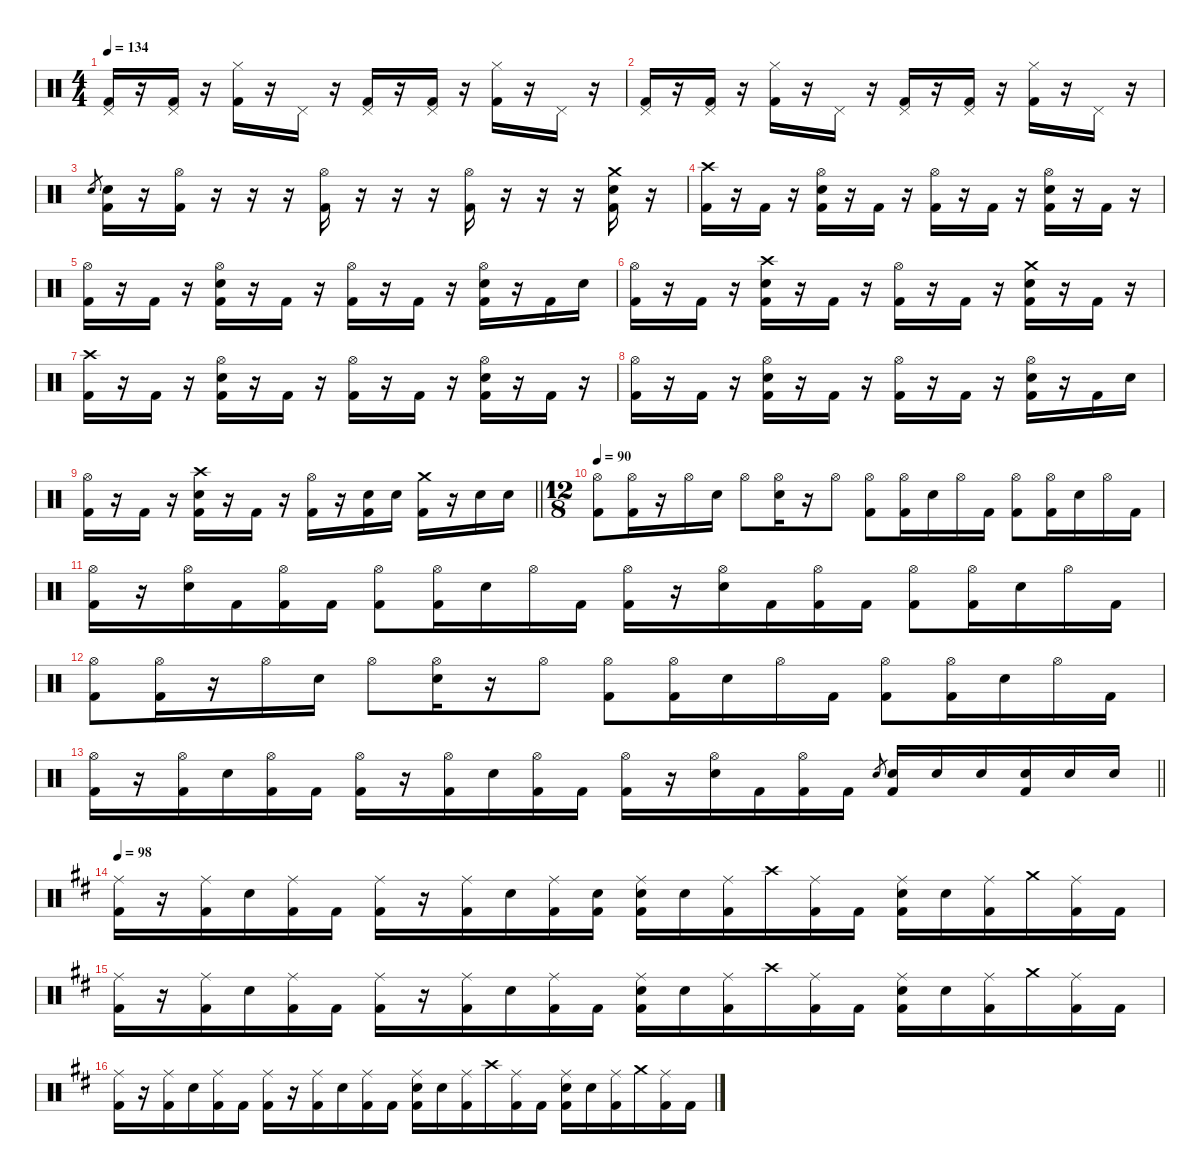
\defaultSystemsLayout 4
\hideDynamics
\bracketExtendMode nobrackets
\singleTrackTrackNamePolicy hidden
\multiTrackTrackNamePolicy hidden
\firstSystemTrackNameMode fullname
\otherSystemsTrackNameOrientation horizontal
\track ("DRUMS" "drm.") {instrument percussion}
\staff {score}
\articulation defaults
\ts (4 4)
\tempo 134
\clef neutral
\ks c
("Pedal Hi-Hat (hit)" "Kick (hit) 2").16{dy ff beam Up} r.16{beam Up} ("Pedal Hi-Hat (hit)" "Kick (hit) 2").16{dy mf beam Up} r.16{beam Up} ("Hi-Hat (closed)" "Kick (hit) 2").16{dy ff beam Down} r.16{beam Down} "Pedal Hi-Hat (hit)".16{dy mf beam Down} r.16{beam Down} ("Pedal Hi-Hat (hit)" "Kick (hit) 2").16{dy ff beam Up} r.16{beam Up} ("Pedal Hi-Hat (hit)" "Kick (hit) 2").16{dy mf beam Up} r.16{beam Up} ("Hi-Hat (closed)" "Kick (hit) 2").16{dy ff beam Down} r.16{beam Down} "Pedal Hi-Hat (hit)".16{dy mf beam Down} r.16{beam Down} |
("Pedal Hi-Hat (hit)" "Kick (hit) 2").16{dy ff beam Up} r.16{beam Up} ("Pedal Hi-Hat (hit)" "Kick (hit) 2").16{dy mf beam Up} r.16{beam Up} ("Hi-Hat (closed)" "Kick (hit) 2").16{dy ff beam Down} r.16{beam Down} "Pedal Hi-Hat (hit)".16{dy mf beam Down} r.16{beam Down} ("Pedal Hi-Hat (hit)" "Kick (hit) 2").16{dy ff beam Up} r.16{beam Up} ("Pedal Hi-Hat (hit)" "Kick (hit) 2").16{dy mf beam Up} r.16{beam Up} ("Hi-Hat (closed)" "Kick (hit) 2").16{dy ff beam Down} r.16{beam Down} "Pedal Hi-Hat (hit)".16{dy mf beam Down} r.16{beam Down} |
"Electric Snare (hit)".8{gr dy f beam Up} ("Snare (hit) 2" "Kick (hit) 2").16{dy ff beam Down} r.16{beam Down} ("Hi-Hat (open)" "Kick (hit) 2").16{dy mf beam Down} r.16{beam Down} r.16{beam Down} r.16{beam Down} ("Hi-Hat (open)" "Kick (hit) 2").16{beam Down} r.16{beam Down} r.16{beam Down} r.16{beam Down} ("Hi-Hat (open)" "Kick (hit) 2").16{beam Down} r.16{beam Down} r.16{beam Down} r.16{beam Down} ("Crash medium (hit)" "Snare (hit) 2" "Kick (hit) 2").16{dy f beam Down} r.16{beam Down} |
("Crash high (hit)" "Kick (hit) 2").16{dy ff beam Down} r.16{beam Down} "Kick (hit) 2".16{beam Down} r.16{beam Down} ("Hi-Hat (open)" "Snare (hit) 2" "Kick (hit) 2").16{dy mf beam Down} r.16{beam Down} "Kick (hit) 2".16{dy ff beam Down} r.16{beam Down} ("Hi-Hat (open)" "Kick (hit) 2").16{dy mf beam Down} r.16{beam Down} "Kick (hit) 2".16{dy ff beam Down} r.16{beam Down} ("Hi-Hat (open)" "Snare (hit) 2" "Kick (hit) 2").16{dy mf beam Down} r.16{beam Down} "Kick (hit) 2".16{dy ff beam Down} r.16{beam Down} |
("Hi-Hat (open)" "Kick (hit) 2").16{beam Down} r.16{beam Down} "Kick (hit) 2".16{beam Down} r.16{beam Down} ("Hi-Hat (open)" "Snare (hit) 2" "Kick (hit) 2").16{dy mf beam Down} r.16{beam Down} "Kick (hit) 2".16{dy ff beam Down} r.16{beam Down} ("Hi-Hat (open)" "Kick (hit) 2").16{dy mf beam Down} r.16{beam Down} "Kick (hit) 2".16{dy ff beam Down} r.16{beam Down} ("Hi-Hat (open)" "Snare (hit) 2" "Kick (hit) 2").16{dy mf beam Down} r.16{beam Down} "Kick (hit) 2".16{dy ff beam Down} "Snare (hit) 2".16{dy f beam Down} |
("Hi-Hat (open)" "Kick (hit) 2").16{dy ff beam Down} r.16{beam Down} "Kick (hit) 2".16{beam Down} r.16{beam Down} ("Crash high (hit)" "Snare (hit) 2" "Kick (hit) 2").16{dy mf beam Down} r.16{beam Down} "Kick (hit) 2".16{dy ff beam Down} r.16{beam Down} ("Hi-Hat (open)" "Kick (hit) 2").16{dy mf beam Down} r.16{beam Down} "Kick (hit) 2".16{dy ff beam Down} r.16{beam Down} ("Crash medium (hit)" "Snare (hit) 2" "Kick (hit) 2").16{dy mf beam Down} r.16{beam Down} "Kick (hit) 2".16{dy ff beam Down} r.16{beam Down} |
("Crash high (hit)" "Kick (hit) 2").16{beam Down} r.16{beam Down} "Kick (hit) 2".16{beam Down} r.16{beam Down} ("Hi-Hat (open)" "Snare (hit) 2" "Kick (hit) 2").16{dy mf beam Down} r.16{beam Down} "Kick (hit) 2".16{dy ff beam Down} r.16{beam Down} ("Hi-Hat (open)" "Kick (hit) 2").16{dy mf beam Down} r.16{beam Down} "Kick (hit) 2".16{dy ff beam Down} r.16{beam Down} ("Hi-Hat (open)" "Snare (hit) 2" "Kick (hit) 2").16{dy mf beam Down} r.16{beam Down} "Kick (hit) 2".16{dy ff beam Down} r.16{beam Down} |
("Hi-Hat (open)" "Kick (hit) 2").16{beam Down} r.16{beam Down} "Kick (hit) 2".16{beam Down} r.16{beam Down} ("Hi-Hat (open)" "Snare (hit) 2" "Kick (hit) 2").16{dy mf beam Down} r.16{beam Down} "Kick (hit) 2".16{dy ff beam Down} r.16{beam Down} ("Hi-Hat (open)" "Kick (hit) 2").16{dy mf beam Down} r.16{beam Down} "Kick (hit) 2".16{dy ff beam Down} r.16{beam Down} ("Hi-Hat (open)" "Snare (hit) 2" "Kick (hit) 2").16{dy mf beam Down} r.16{beam Down} "Kick (hit) 2".16{dy ff beam Down} "Snare (hit) 2".16{dy f beam Down} |
\barLineRight lightlight
("Hi-Hat (open)" "Kick (hit) 2").16{dy ff beam Down} r.16{beam Down} "Kick (hit) 2".16{beam Down} r.16{beam Down} ("Crash high (hit)" "Snare (hit) 2" "Kick (hit) 2").16{dy mf beam Down} r.16{beam Down} "Kick (hit) 2".16{dy ff beam Down} r.16{beam Down} ("Hi-Hat (open)" "Kick (hit) 2").16{dy mf beam Down} r.16{beam Down} ("Snare (hit) 2" "Kick (hit) 2").16{dy f beam Down} "Snare (hit) 2".16{beam Down} ("Crash medium (hit)" "Kick (hit) 2").16{dy mf beam Down} r.16{beam Down} "Snare (hit) 2".16{dy f beam Down} "Snare (hit) 2".16{beam Down} |
\ts (12 8)
\beaming (8 3 3 3 3)
\tempo 90
("Hi-Hat (open)" "Kick (hit) 2").8{dy mf beam Down} ("Hi-Hat (open)" "Kick (hit) 2").16{dy mp beam Down} r.16{beam Down} "Hi-Hat (open)".16{beam Down} "Snare (hit) 2".16{dy f beam Down} "Hi-Hat (open)".8{dy mp beam Down} ("Hi-Hat (open)" "Snare (hit) 2").16{beam Down} r.16{beam Down} "Hi-Hat (open)".8{beam Down} ("Hi-Hat (open)" "Kick (hit) 2").8{beam Down} ("Hi-Hat (open)" "Kick (hit) 2").16{beam Down} "Snare (hit) 2".16{dy f beam Down} "Hi-Hat (open)".16{dy mp beam Down} "Kick (hit) 2".16{dy f beam Down} ("Hi-Hat (open)" "Kick (hit) 2").8{dy mp beam Down} ("Hi-Hat (open)" "Kick (hit) 2").16{beam Down} "Snare (hit) 2".16{dy f beam Down} "Hi-Hat (open)".16{dy mp beam Down} "Kick (hit) 2".16{dy f beam Down} |
("Hi-Hat (open)" "Kick (hit) 2").16{dy mp beam Down} r.16{beam Down} ("Hi-Hat (open)" "Snare (hit) 2").16{beam Down} "Kick (hit) 2".16{dy f beam Down} ("Hi-Hat (open)" "Kick (hit) 2").16{dy mp beam Down} "Kick (hit) 2".16{dy f beam Down} ("Hi-Hat (open)" "Kick (hit) 2").8{dy mp beam Down} ("Hi-Hat (open)" "Kick (hit) 2").16{beam Down} "Snare (hit) 2".16{dy f beam Down} "Hi-Hat (open)".16{dy mp beam Down} "Kick (hit) 2".16{dy f beam Down} ("Hi-Hat (open)" "Kick (hit) 2").16{dy mp beam Down} r.16{beam Down} ("Hi-Hat (open)" "Snare (hit) 2").16{beam Down} "Kick (hit) 2".16{dy f beam Down} ("Hi-Hat (open)" "Kick (hit) 2").16{dy mp beam Down} "Kick (hit) 2".16{dy f beam Down} ("Hi-Hat (open)" "Kick (hit) 2").8{dy mp beam Down} ("Hi-Hat (open)" "Kick (hit) 2").16{beam Down} "Snare (hit) 2".16{dy f beam Down} "Hi-Hat (open)".16{dy mp beam Down} "Kick (hit) 2".16{dy f beam Down} |
("Hi-Hat (open)" "Kick (hit) 2").8{dy mp beam Down} ("Hi-Hat (open)" "Kick (hit) 2").16{beam Down} r.16{beam Down} "Hi-Hat (open)".16{beam Down} "Snare (hit) 2".16{dy f beam Down} "Hi-Hat (open)".8{dy mp beam Down} ("Hi-Hat (open)" "Snare (hit) 2").16{beam Down} r.16{beam Down} "Hi-Hat (open)".8{beam Down} ("Hi-Hat (open)" "Kick (hit) 2").8{beam Down} ("Hi-Hat (open)" "Kick (hit) 2").16{beam Down} "Snare (hit) 2".16{dy f beam Down} "Hi-Hat (open)".16{dy mp beam Down} "Kick (hit) 2".16{dy f beam Down} ("Hi-Hat (open)" "Kick (hit) 2").8{dy mp beam Down} ("Hi-Hat (open)" "Kick (hit) 2").16{beam Down} "Snare (hit) 2".16{dy f beam Down} "Hi-Hat (open)".16{dy mp beam Down} "Kick (hit) 2".16{dy f beam Down} |
\barLineRight lightlight
("Hi-Hat (open)" "Kick (hit) 2").16{dy mp beam Down} r.16{beam Down} ("Hi-Hat (open)" "Kick (hit) 2").16{beam Down} "Snare (hit) 2".16{dy f beam Down} ("Hi-Hat (open)" "Kick (hit) 2").16{dy mp beam Down} "Kick (hit) 2".16{dy f beam Down} ("Hi-Hat (open)" "Kick (hit) 2").16{dy mp beam Down} r.16{beam Down} ("Hi-Hat (open)" "Kick (hit) 2").16{beam Down} "Snare (hit) 2".16{dy f beam Down} ("Hi-Hat (open)" "Kick (hit) 2").16{dy mp beam Down} "Kick (hit) 2".16{dy f beam Down} ("Hi-Hat (open)" "Kick (hit) 2").16{dy mp beam Down} r.16{beam Down} ("Hi-Hat (open)" "Snare (hit) 2").16{beam Down} "Kick (hit) 2".16{dy f beam Down} ("Hi-Hat (open)" "Kick (hit) 2").16{dy mp beam Down} "Kick (hit) 2".16{dy f beam Down} "Electric Snare (hit)".8{gr dy mf beam Up} ("Snare (hit) 2" "Kick (hit) 2").16{dy f beam Up} "Snare (hit) 2".16{beam Up} "Snare (hit) 2".16{beam Up} ("Snare (hit) 2" "Kick (hit) 2").16{beam Up} "Snare (hit) 2".16{beam Up} "Snare (hit) 2".16{beam Up} |
\tempo 98
\ks bminor
("Ride (middle)"{acc forcenatural} "Kick (hit) 2"{acc forcenatural}).16{dy mp beam Down} r.16{beam Down} ("Ride (middle)"{acc forcenatural} "Kick (hit) 2"{acc forcenatural}).16{dy f beam Down} "Snare (hit) 2"{acc forcenatural}.16{beam Down} ("Ride (middle)"{acc forcenatural} "Kick (hit) 2"{acc forcenatural}).16{dy mp beam Down} "Kick (hit) 2"{acc forcenatural}.16{dy f beam Down} ("Ride (middle)"{acc forcenatural} "Kick (hit) 2"{acc forcenatural}).16{dy mp beam Down} r.16{beam Down} ("Ride (middle)"{acc forcenatural} "Kick (hit) 2"{acc forcenatural}).16{dy f beam Down} "Snare (hit) 2"{acc forcenatural}.16{beam Down} ("Ride (middle)"{acc forcenatural} "Kick (hit) 2"{acc forcenatural}).16{dy mp beam Down} ("Snare (hit) 2"{acc forcenatural} "Kick (hit) 2"{acc forcenatural}).16{dy f beam Down} ("Ride (middle)"{acc forcenatural} "Snare (hit) 2"{acc forcenatural} "Kick (hit) 2"{acc forcenatural}).16{dy mp beam Down} "Snare (hit) 2"{acc forcenatural}.16{dy f beam Down} ("Ride (middle)"{acc forcenatural} "Kick (hit) 2"{acc forcenatural}).16{beam Down} "Crash high (hit)"{acc forcenatural}.16{beam Down} ("Ride (middle)"{acc forcenatural} "Kick (hit) 2"{acc forcenatural}).16{dy mp beam Down} "Kick (hit) 2"{acc forcenatural}.16{dy f beam Down} ("Ride (middle)"{acc forcenatural} "Snare (hit) 2"{acc forcenatural} "Kick (hit) 2"{acc forcenatural}).16{dy mp beam Down} "Snare (hit) 2"{acc forcenatural}.16{dy f beam Down} ("Ride (middle)"{acc forcenatural} "Kick (hit) 2"{acc forcenatural}).16{beam Down} "Crash medium (hit)"{acc forcenatural}.16{beam Down} ("Ride (middle)"{acc forcenatural} "Kick (hit) 2"{acc forcenatural}).16{dy mp beam Down} "Kick (hit) 2"{acc forcenatural}.16{dy f beam Down} |
("Ride (middle)"{acc forcenatural} "Kick (hit) 2"{acc forcenatural}).16{dy mp beam Down} r.16{beam Down} ("Ride (middle)"{acc forcenatural} "Kick (hit) 2"{acc forcenatural}).16{dy f beam Down} "Snare (hit) 2"{acc forcenatural}.16{beam Down} ("Ride (middle)"{acc forcenatural} "Kick (hit) 2"{acc forcenatural}).16{dy mp beam Down} "Kick (hit) 2"{acc forcenatural}.16{dy f beam Down} ("Ride (middle)"{acc forcenatural} "Kick (hit) 2"{acc forcenatural}).16{dy mp beam Down} r.16{beam Down} ("Ride (middle)"{acc forcenatural} "Kick (hit) 2"{acc forcenatural}).16{dy f beam Down} "Snare (hit) 2"{acc forcenatural}.16{beam Down} ("Ride (middle)"{acc forcenatural} "Kick (hit) 2"{acc forcenatural}).16{dy mp beam Down} "Kick (hit) 2"{acc forcenatural}.16{dy f beam Down} ("Ride (middle)"{acc forcenatural} "Snare (hit) 2"{acc forcenatural} "Kick (hit) 2"{acc forcenatural}).16{dy mp beam Down} "Snare (hit) 2"{acc forcenatural}.16{dy f beam Down} ("Ride (middle)"{acc forcenatural} "Kick (hit) 2"{acc forcenatural}).16{beam Down} "Crash high (hit)"{acc forcenatural}.16{beam Down} ("Ride (middle)"{acc forcenatural} "Kick (hit) 2"{acc forcenatural}).16{dy mp beam Down} "Kick (hit) 2"{acc forcenatural}.16{dy f beam Down} ("Ride (middle)"{acc forcenatural} "Snare (hit) 2"{acc forcenatural} "Kick (hit) 2"{acc forcenatural}).16{dy mp beam Down} "Snare (hit) 2"{acc forcenatural}.16{dy f beam Down} ("Ride (middle)"{acc forcenatural} "Kick (hit) 2"{acc forcenatural}).16{beam Down} "Crash medium (hit)"{acc forcenatural}.16{beam Down} ("Ride (middle)"{acc forcenatural} "Kick (hit) 2"{acc forcenatural}).16{dy mp beam Down} "Kick (hit) 2"{acc forcenatural}.16{dy f beam Down} |
("Ride (middle)"{acc forcenatural} "Kick (hit) 2"{acc forcenatural}).16{dy mp beam Down} r.16{beam Down} ("Ride (middle)"{acc forcenatural} "Kick (hit) 2"{acc forcenatural}).16{dy f beam Down} "Snare (hit) 2"{acc forcenatural}.16{beam Down} ("Ride (middle)"{acc forcenatural} "Kick (hit) 2"{acc forcenatural}).16{dy mp beam Down} "Kick (hit) 2"{acc forcenatural}.16{dy f beam Down} ("Ride (middle)"{acc forcenatural} "Kick (hit) 2"{acc forcenatural}).16{dy mp beam Down} r.16{beam Down} ("Ride (middle)"{acc forcenatural} "Kick (hit) 2"{acc forcenatural}).16{dy f beam Down} "Snare (hit) 2"{acc forcenatural}.16{beam Down} ("Ride (middle)"{acc forcenatural} "Kick (hit) 2"{acc forcenatural}).16{dy mp beam Down} "Kick (hit) 2"{acc forcenatural}.16{dy f beam Down} ("Ride (middle)"{acc forcenatural} "Snare (hit) 2"{acc forcenatural} "Kick (hit) 2"{acc forcenatural}).16{dy mp beam Down} "Snare (hit) 2"{acc forcenatural}.16{dy f beam Down} ("Ride (middle)"{acc forcenatural} "Kick (hit) 2"{acc forcenatural}).16{beam Down} "Crash high (hit)"{acc forcenatural}.16{beam Down} ("Ride (middle)"{acc forcenatural} "Kick (hit) 2"{acc forcenatural}).16{dy mp beam Down} "Kick (hit) 2"{acc forcenatural}.16{dy f beam Down} ("Ride (middle)"{acc forcenatural} "Snare (hit) 2"{acc forcenatural} "Kick (hit) 2"{acc forcenatural}).16{dy mp beam Down} "Snare (hit) 2"{acc forcenatural}.16{dy f beam Down} ("Ride (middle)"{acc forcenatural} "Kick (hit) 2"{acc forcenatural}).16{beam Down} "Crash medium (hit)"{acc forcenatural}.16{beam Down} ("Ride (middle)"{acc forcenatural} "Kick (hit) 2"{acc forcenatural}).16{dy mp beam Down} "Kick (hit) 2"{acc forcenatural}.16{dy f beam Down}
